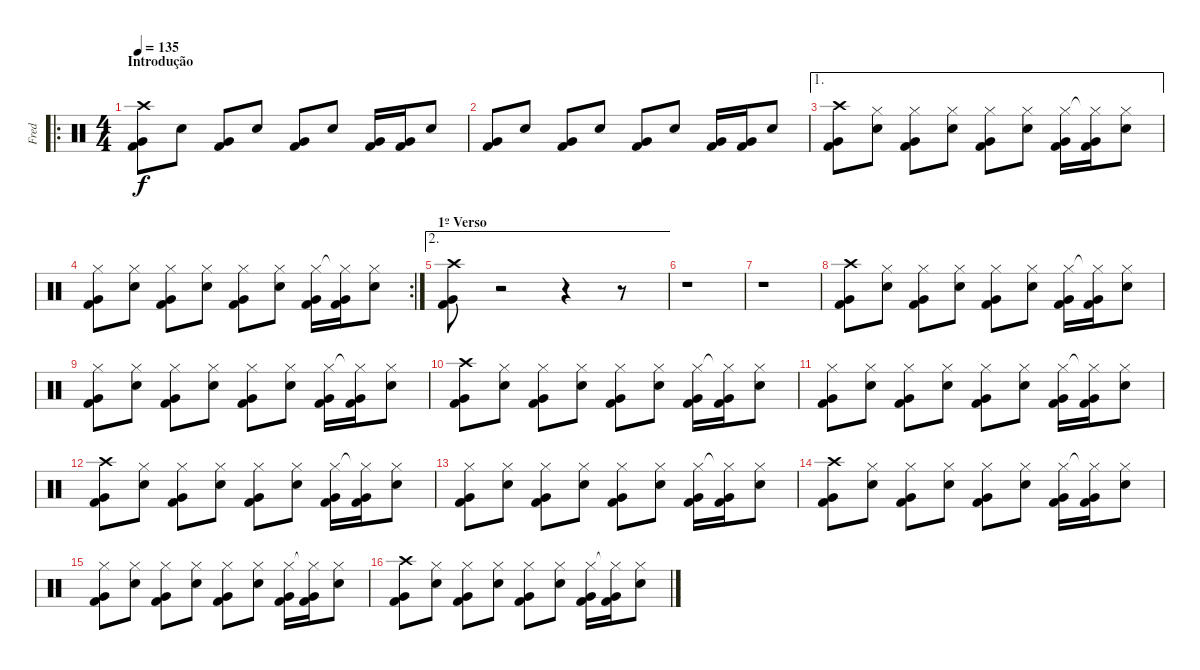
\track ("Fred" "Fred") {instrument percussion}
\staff {score}
\articulation defaults
\ro
\ts (4 4)
\section ("" "Introdução")
\tempo 135
\clef neutral
\ks c
("Very Low Tom (hit)" "Kick (hit) 2" "Crash high (hit)").8{dy f} "Snare (hit) 2".8 ("Very Low Tom (hit)" "Kick (hit) 2").8 "Snare (hit) 2".8 ("Very Low Tom (hit)" "Kick (hit) 2").8 "Snare (hit) 2".8 ("Very Low Tom (hit)" "Kick (hit) 2").16 ("Very Low Tom (hit)" "Kick (hit) 2").16 "Snare (hit) 2".8 |
("Very Low Tom (hit)" "Kick (hit) 2").8 "Snare (hit) 2".8 ("Very Low Tom (hit)" "Kick (hit) 2").8 "Snare (hit) 2".8 ("Very Low Tom (hit)" "Kick (hit) 2").8 "Snare (hit) 2".8 ("Very Low Tom (hit)" "Kick (hit) 2").16 ("Very Low Tom (hit)" "Kick (hit) 2").16 "Snare (hit) 2".8 |
\ae 1
("Very Low Tom (hit)" "Kick (hit) 2" "Crash high (hit)").8 ("Snare (hit) 2" "Hi-Hat (closed)").8 ("Very Low Tom (hit)" "Kick (hit) 2" "Hi-Hat (closed)").8 ("Snare (hit) 2" "Hi-Hat (closed)").8 ("Very Low Tom (hit)" "Kick (hit) 2" "Hi-Hat (closed)").8 ("Snare (hit) 2" "Hi-Hat (closed)").8 ("Very Low Tom (hit)" "Kick (hit) 2" "Hi-Hat (closed)").16 ("Very Low Tom (hit)" "Kick (hit) 2" "Hi-Hat (closed)"{t}).16 ("Snare (hit) 2" "Hi-Hat (closed)").8 |
\rc 2
("Very Low Tom (hit)" "Kick (hit) 2" "Hi-Hat (closed)").8 ("Snare (hit) 2" "Hi-Hat (closed)").8 ("Very Low Tom (hit)" "Kick (hit) 2" "Hi-Hat (closed)").8 ("Snare (hit) 2" "Hi-Hat (closed)").8 ("Very Low Tom (hit)" "Kick (hit) 2" "Hi-Hat (closed)").8 ("Snare (hit) 2" "Hi-Hat (closed)").8 ("Very Low Tom (hit)" "Kick (hit) 2" "Hi-Hat (closed)").16 ("Very Low Tom (hit)" "Kick (hit) 2" "Hi-Hat (closed)"{t}).16 ("Snare (hit) 2" "Hi-Hat (closed)").8 |
\ae 2
\section ("" "1º Verso")
("Very Low Tom (hit)" "Kick (hit) 2" "Crash high (hit)").8 r.2 r.4 r.8 |
r.1 |
r.1 |
("Very Low Tom (hit)" "Kick (hit) 2" "Crash high (hit)").8 ("Snare (hit) 2" "Hi-Hat (closed)").8 ("Very Low Tom (hit)" "Kick (hit) 2" "Hi-Hat (closed)").8 ("Snare (hit) 2" "Hi-Hat (closed)").8 ("Very Low Tom (hit)" "Kick (hit) 2" "Hi-Hat (closed)").8 ("Snare (hit) 2" "Hi-Hat (closed)").8 ("Very Low Tom (hit)" "Kick (hit) 2" "Hi-Hat (closed)").16 ("Very Low Tom (hit)" "Kick (hit) 2" "Hi-Hat (closed)"{t}).16 ("Snare (hit) 2" "Hi-Hat (closed)").8 |
("Very Low Tom (hit)" "Kick (hit) 2" "Hi-Hat (closed)").8 ("Snare (hit) 2" "Hi-Hat (closed)").8 ("Very Low Tom (hit)" "Kick (hit) 2" "Hi-Hat (closed)").8 ("Snare (hit) 2" "Hi-Hat (closed)").8 ("Very Low Tom (hit)" "Kick (hit) 2" "Hi-Hat (closed)").8 ("Snare (hit) 2" "Hi-Hat (closed)").8 ("Very Low Tom (hit)" "Kick (hit) 2" "Hi-Hat (closed)").16 ("Very Low Tom (hit)" "Kick (hit) 2" "Hi-Hat (closed)"{t}).16 ("Snare (hit) 2" "Hi-Hat (closed)").8 |
("Very Low Tom (hit)" "Kick (hit) 2" "Crash high (hit)").8 ("Snare (hit) 2" "Hi-Hat (closed)").8 ("Very Low Tom (hit)" "Kick (hit) 2" "Hi-Hat (closed)").8 ("Snare (hit) 2" "Hi-Hat (closed)").8 ("Very Low Tom (hit)" "Kick (hit) 2" "Hi-Hat (closed)").8 ("Snare (hit) 2" "Hi-Hat (closed)").8 ("Very Low Tom (hit)" "Kick (hit) 2" "Hi-Hat (closed)").16 ("Very Low Tom (hit)" "Kick (hit) 2" "Hi-Hat (closed)"{t}).16 ("Snare (hit) 2" "Hi-Hat (closed)").8 |
("Very Low Tom (hit)" "Kick (hit) 2" "Hi-Hat (closed)").8 ("Snare (hit) 2" "Hi-Hat (closed)").8 ("Very Low Tom (hit)" "Kick (hit) 2" "Hi-Hat (closed)").8 ("Snare (hit) 2" "Hi-Hat (closed)").8 ("Very Low Tom (hit)" "Kick (hit) 2" "Hi-Hat (closed)").8 ("Snare (hit) 2" "Hi-Hat (closed)").8 ("Very Low Tom (hit)" "Kick (hit) 2" "Hi-Hat (closed)").16 ("Very Low Tom (hit)" "Kick (hit) 2" "Hi-Hat (closed)"{t}).16 ("Snare (hit) 2" "Hi-Hat (closed)").8 |
("Very Low Tom (hit)" "Kick (hit) 2" "Crash high (hit)").8 ("Snare (hit) 2" "Hi-Hat (closed)").8 ("Very Low Tom (hit)" "Kick (hit) 2" "Hi-Hat (closed)").8 ("Snare (hit) 2" "Hi-Hat (closed)").8 ("Very Low Tom (hit)" "Kick (hit) 2" "Hi-Hat (closed)").8 ("Snare (hit) 2" "Hi-Hat (closed)").8 ("Very Low Tom (hit)" "Kick (hit) 2" "Hi-Hat (closed)").16 ("Very Low Tom (hit)" "Kick (hit) 2" "Hi-Hat (closed)"{t}).16 ("Snare (hit) 2" "Hi-Hat (closed)").8 |
("Very Low Tom (hit)" "Kick (hit) 2" "Hi-Hat (closed)").8 ("Snare (hit) 2" "Hi-Hat (closed)").8 ("Very Low Tom (hit)" "Kick (hit) 2" "Hi-Hat (closed)").8 ("Snare (hit) 2" "Hi-Hat (closed)").8 ("Very Low Tom (hit)" "Kick (hit) 2" "Hi-Hat (closed)").8 ("Snare (hit) 2" "Hi-Hat (closed)").8 ("Very Low Tom (hit)" "Kick (hit) 2" "Hi-Hat (closed)").16 ("Very Low Tom (hit)" "Kick (hit) 2" "Hi-Hat (closed)"{t}).16 ("Snare (hit) 2" "Hi-Hat (closed)").8 |
("Very Low Tom (hit)" "Kick (hit) 2" "Crash high (hit)").8 ("Snare (hit) 2" "Hi-Hat (closed)").8 ("Very Low Tom (hit)" "Kick (hit) 2" "Hi-Hat (closed)").8 ("Snare (hit) 2" "Hi-Hat (closed)").8 ("Very Low Tom (hit)" "Kick (hit) 2" "Hi-Hat (closed)").8 ("Snare (hit) 2" "Hi-Hat (closed)").8 ("Very Low Tom (hit)" "Kick (hit) 2" "Hi-Hat (closed)").16 ("Very Low Tom (hit)" "Kick (hit) 2" "Hi-Hat (closed)"{t}).16 ("Snare (hit) 2" "Hi-Hat (closed)").8 |
("Very Low Tom (hit)" "Kick (hit) 2" "Hi-Hat (closed)").8 ("Snare (hit) 2" "Hi-Hat (closed)").8 ("Very Low Tom (hit)" "Kick (hit) 2" "Hi-Hat (closed)").8 ("Snare (hit) 2" "Hi-Hat (closed)").8 ("Very Low Tom (hit)" "Kick (hit) 2" "Hi-Hat (closed)").8 ("Snare (hit) 2" "Hi-Hat (closed)").8 ("Very Low Tom (hit)" "Kick (hit) 2" "Hi-Hat (closed)").16 ("Very Low Tom (hit)" "Kick (hit) 2" "Hi-Hat (closed)"{t}).16 ("Snare (hit) 2" "Hi-Hat (closed)").8 |
("Very Low Tom (hit)" "Kick (hit) 2" "Crash high (hit)").8 ("Snare (hit) 2" "Hi-Hat (closed)").8 ("Very Low Tom (hit)" "Kick (hit) 2" "Hi-Hat (closed)").8 ("Snare (hit) 2" "Hi-Hat (closed)").8 ("Very Low Tom (hit)" "Kick (hit) 2" "Hi-Hat (closed)").8 ("Snare (hit) 2" "Hi-Hat (closed)").8 ("Very Low Tom (hit)" "Kick (hit) 2" "Hi-Hat (closed)").16 ("Very Low Tom (hit)" "Kick (hit) 2" "Hi-Hat (closed)"{t}).16 ("Snare (hit) 2" "Hi-Hat (closed)").8
